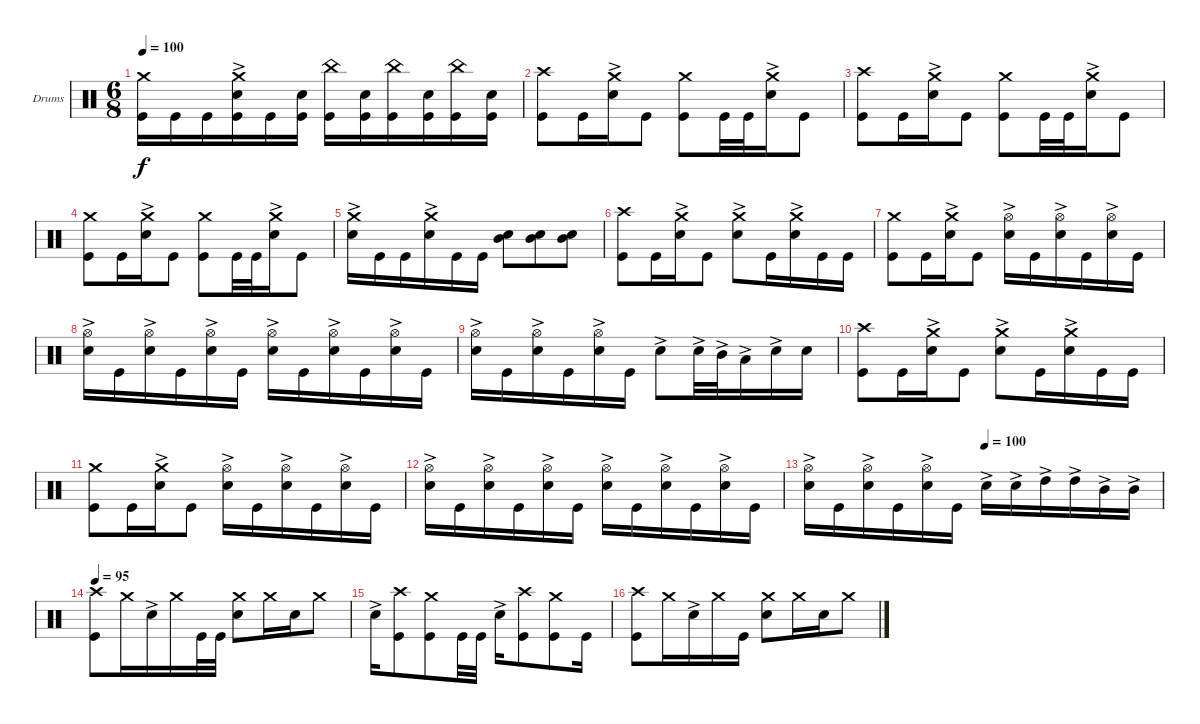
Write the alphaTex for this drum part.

\bracketExtendMode groupsimilarinstruments
\firstSystemTrackNameOrientation horizontal
\otherSystemsTrackNameOrientation horizontal
\track ("Drumkit" "Drums") {instrument percussion}
\staff {score}
\articulation defaults
\ts (6 8)
\tempo 100
\clef neutral
\ks c
("Kick (hit)" "Crash medium (hit)").16{dy f} "Kick (hit)".16 "Kick (hit)".16 ("Kick (hit)" "Snare (hit) 2"{ac} "Crash medium (hit)").16 "Kick (hit)".16 ("Kick (hit)" "Snare (hit) 2").16 ("Kick (hit)" "China (hit)").16 ("Kick (hit)" "Snare (hit) 2").16 ("Kick (hit)" "China (hit)").16 ("Kick (hit)" "Snare (hit) 2").16 ("Kick (hit)" "China (hit)").16 ("Kick (hit)" "Snare (hit) 2").16 |
("Kick (hit)" "Crash high (hit)").8 "Kick (hit)".16 ("Snare (hit) 2"{ac} "Crash medium (hit)").16 "Kick (hit)".8 ("Kick (hit)" "Crash medium (hit)").8 "Kick (hit)".32 "Kick (hit)".32 ("Snare (hit) 2"{ac} "Crash medium (hit)").16 "Kick (hit)".8 |
("Kick (hit)" "Crash high (hit)").8 "Kick (hit)".16 ("Snare (hit) 2"{ac} "Crash medium (hit)").16 "Kick (hit)".8 ("Kick (hit)" "Crash medium (hit)").8 "Kick (hit)".32 "Kick (hit)".32 ("Snare (hit) 2"{ac} "Crash medium (hit)").16 "Kick (hit)".8 |
("Kick (hit)" "Crash medium (hit)").8 "Kick (hit)".16 ("Snare (hit) 2"{ac} "Crash medium (hit)").16 "Kick (hit)".8 ("Kick (hit)" "Crash medium (hit)").8 "Kick (hit)".32 "Kick (hit)".32 ("Snare (hit) 2"{ac} "Crash medium (hit)").16 "Kick (hit)".8 |
("Snare (hit) 2"{ac} "Crash medium (hit)").16 "Kick (hit)".16 "Kick (hit)".16 ("Snare (hit) 2"{ac} "Crash medium (hit)").16 "Kick (hit)".16 "Kick (hit)".16 ("Snare (hit) 2" "Mid Tom (hit)").8 ("Snare (hit) 2" "Mid Tom (hit)").8 ("Snare (hit) 2" "Mid Tom (hit)").8 |
("Kick (hit)" "Crash high (hit)").8 "Kick (hit)".16 ("Snare (hit) 2"{ac} "Crash medium (hit)").16 "Kick (hit)".8 ("Snare (hit) 2"{ac} "Crash medium (hit)").8 "Kick (hit)".16 ("Snare (hit) 2"{ac} "Crash medium (hit)").16 "Kick (hit)".16 "Kick (hit)".16 |
("Kick (hit)" "Crash medium (hit)").8 "Kick (hit)".16 ("Snare (hit) 2"{ac} "Crash medium (hit)").16 "Kick (hit)".8 ("Snare (hit) 2"{ac} "Hi-Hat (open)").16 "Kick (hit)".16 ("Snare (hit) 2"{ac} "Hi-Hat (open)").16 "Kick (hit)".16 ("Snare (hit) 2"{ac} "Hi-Hat (open)").16 "Kick (hit)".16 |
("Snare (hit) 2"{ac} "Hi-Hat (open)").16 "Kick (hit)".16 ("Snare (hit) 2"{ac} "Hi-Hat (open)").16 "Kick (hit)".16 ("Snare (hit) 2"{ac} "Hi-Hat (open)").16 "Kick (hit)".16 ("Snare (hit) 2"{ac} "Hi-Hat (open)").16 "Kick (hit)".16 ("Snare (hit) 2"{ac} "Hi-Hat (open)").16 "Kick (hit)".16 ("Snare (hit) 2"{ac} "Hi-Hat (open)").16 "Kick (hit)".16 |
("Snare (hit) 2"{ac} "Hi-Hat (open)").16 "Kick (hit)".16 ("Snare (hit) 2"{ac} "Hi-Hat (open)").16 "Kick (hit)".16 ("Snare (hit) 2"{ac} "Hi-Hat (open)").16 "Kick (hit)".16 "Snare (hit) 2"{ac}.8 "Snare (hit) 2"{ac}.32 "Mid Tom (hit)"{ac}.32 "Low Tom (hit)"{ac}.16 "Snare (hit) 2"{ac}.16 "Snare (hit) 2".16 |
("Kick (hit)" "Crash high (hit)").8 "Kick (hit)".16 ("Snare (hit) 2"{ac} "Crash medium (hit)").16 "Kick (hit)".8 ("Snare (hit) 2"{ac} "Crash medium (hit)").8 "Kick (hit)".16 ("Snare (hit) 2"{ac} "Crash medium (hit)").16 "Kick (hit)".16 "Kick (hit)".16 |
("Kick (hit)" "Crash medium (hit)").8 "Kick (hit)".16 ("Snare (hit) 2"{ac} "Crash medium (hit)").16 "Kick (hit)".8 ("Snare (hit) 2"{ac} "Hi-Hat (open)").16 "Kick (hit)".16 ("Snare (hit) 2"{ac} "Hi-Hat (open)").16 "Kick (hit)".16 ("Snare (hit) 2"{ac} "Hi-Hat (open)").16 "Kick (hit)".16 |
("Snare (hit) 2"{ac} "Hi-Hat (open)").16 "Kick (hit)".16 ("Snare (hit) 2"{ac} "Hi-Hat (open)").16 "Kick (hit)".16 ("Snare (hit) 2"{ac} "Hi-Hat (open)").16 "Kick (hit)".16 ("Snare (hit) 2"{ac} "Hi-Hat (open)").16 "Kick (hit)".16 ("Snare (hit) 2"{ac} "Hi-Hat (open)").16 "Kick (hit)".16 ("Snare (hit) 2"{ac} "Hi-Hat (open)").16 "Kick (hit)".16 |
\tempo (100 0.5)
("Snare (hit) 2"{ac} "Hi-Hat (open)").16 "Kick (hit)".16 ("Snare (hit) 2"{ac} "Hi-Hat (open)").16 "Kick (hit)".16 ("Snare (hit) 2"{ac} "Hi-Hat (open)").16 "Kick (hit)".16 "Snare (hit) 2"{ac}.16 "Snare (hit) 2"{ac}.16 "High Tom (hit)"{ac}.16 "High Tom (hit)"{ac}.16 "Mid Tom (hit)"{ac}.16 "Mid Tom (hit)"{ac}.16 |
\tempo 95
("Crash high (hit)" "Kick (hit)").8 "Crash medium (hit)".16 "Snare (hit) 2"{ac}.16 "Crash medium (hit)".16 "Kick (hit)".32 "Kick (hit)".32 ("Snare (hit) 2" "Crash medium (hit)").8 "Crash medium (hit)".16 "Snare (hit) 2".16 "Crash medium (hit)".8 |
"Snare (hit) 2"{ac}.16 ("Kick (hit)" "Crash high (hit)").8 ("Kick (hit)" "Crash medium (hit)").8 "Kick (hit)".32 "Kick (hit)".32 "Snare (hit) 2"{ac}.16 ("Kick (hit)" "Crash high (hit)").8 ("Kick (hit)" "Crash medium (hit)").8 "Kick (hit)".16 |
("Crash high (hit)" "Kick (hit)").8 "Crash medium (hit)".16 "Snare (hit) 2"{ac}.16 "Crash medium (hit)".16 "Kick (hit)".16 ("Snare (hit) 2" "Crash medium (hit)").8 "Crash medium (hit)".16 "Snare (hit) 2".16 "Crash medium (hit)".8
